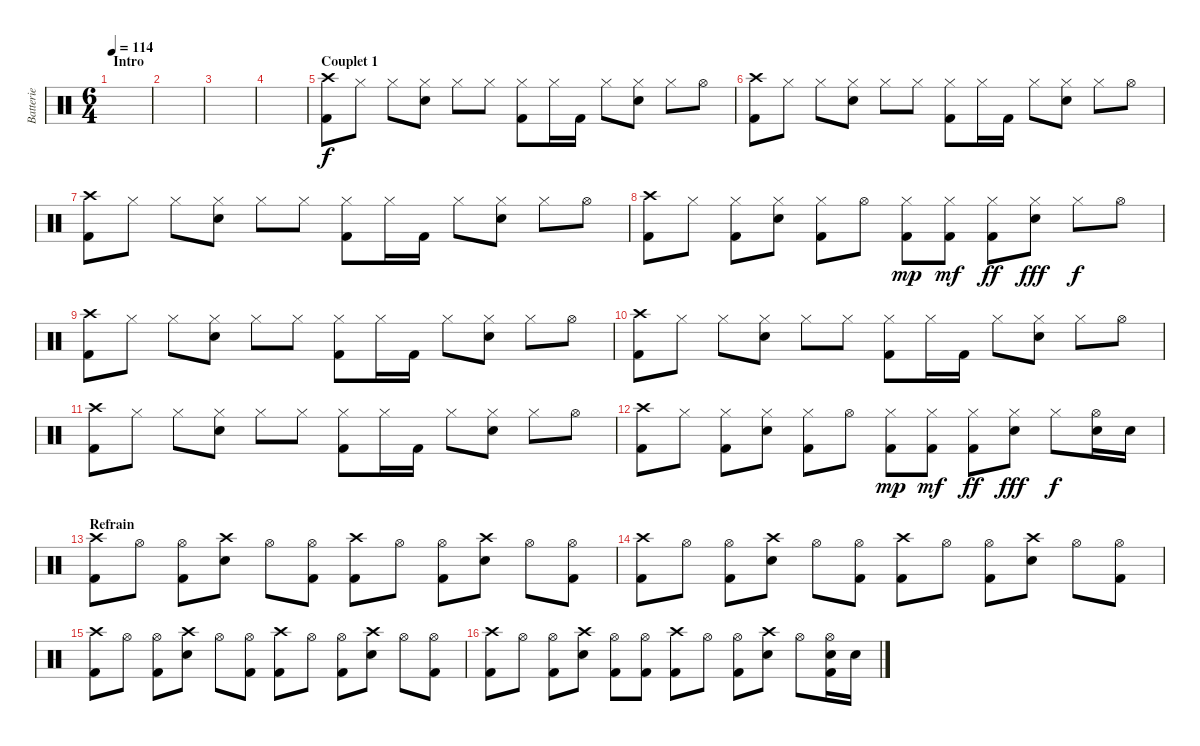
\track ("Batterie" "Batterie") {instrument percussion}
\staff {score}
\articulation defaults
\ts (6 4)
\section ("" "Intro")
\tempo 114
\clef neutral
\ks c
|
|
|
|
\section ("" "Couplet 1")
("Crash high (hit)" "Kick (hit) 2").8 "Hi-Hat (closed)".8 "Hi-Hat (closed)".8 ("Hi-Hat (closed)" "Electric Snare (hit)").8 "Hi-Hat (closed)".8 "Hi-Hat (closed)".8 ("Hi-Hat (closed)" "Kick (hit) 2").8 "Hi-Hat (closed)".16 "Kick (hit) 2".16 "Hi-Hat (closed)".8 ("Hi-Hat (closed)" "Electric Snare (hit)").8 "Hi-Hat (closed)".8 "Hi-Hat (open)".8 |
("Crash high (hit)" "Kick (hit) 2").8 "Hi-Hat (closed)".8 "Hi-Hat (closed)".8 ("Hi-Hat (closed)" "Electric Snare (hit)").8 "Hi-Hat (closed)".8 "Hi-Hat (closed)".8 ("Hi-Hat (closed)" "Kick (hit) 2").8 "Hi-Hat (closed)".16 "Kick (hit) 2".16 "Hi-Hat (closed)".8 ("Hi-Hat (closed)" "Electric Snare (hit)").8 "Hi-Hat (closed)".8 "Hi-Hat (open)".8 |
("Crash high (hit)" "Kick (hit) 2").8 "Hi-Hat (closed)".8 "Hi-Hat (closed)".8 ("Hi-Hat (closed)" "Electric Snare (hit)").8 "Hi-Hat (closed)".8 "Hi-Hat (closed)".8 ("Hi-Hat (closed)" "Kick (hit) 2").8 "Hi-Hat (closed)".16 "Kick (hit) 2".16 "Hi-Hat (closed)".8 ("Hi-Hat (closed)" "Electric Snare (hit)").8 "Hi-Hat (closed)".8 "Hi-Hat (open)".8 |
("Crash high (hit)" "Kick (hit) 2").8 "Hi-Hat (closed)".8 ("Hi-Hat (closed)" "Kick (hit) 2").8 ("Hi-Hat (closed)" "Electric Snare (hit)").8 ("Hi-Hat (closed)" "Kick (hit) 2").8 "Hi-Hat (open)".8 ("Hi-Hat (closed)" "Kick (hit) 2").8{dy mp} ("Hi-Hat (closed)" "Kick (hit) 2").8{dy mf} ("Hi-Hat (closed)" "Kick (hit) 2").8{dy ff} ("Hi-Hat (closed)" "Electric Snare (hit)").8{dy fff} "Hi-Hat (closed)".8{dy f} "Hi-Hat (open)".8 |
("Crash high (hit)" "Kick (hit) 2").8 "Hi-Hat (closed)".8 "Hi-Hat (closed)".8 ("Hi-Hat (closed)" "Electric Snare (hit)").8 "Hi-Hat (closed)".8 "Hi-Hat (closed)".8 ("Hi-Hat (closed)" "Kick (hit) 2").8 "Hi-Hat (closed)".16 "Kick (hit) 2".16 "Hi-Hat (closed)".8 ("Hi-Hat (closed)" "Electric Snare (hit)").8 "Hi-Hat (closed)".8 "Hi-Hat (open)".8 |
("Crash high (hit)" "Kick (hit) 2").8 "Hi-Hat (closed)".8 "Hi-Hat (closed)".8 ("Hi-Hat (closed)" "Electric Snare (hit)").8 "Hi-Hat (closed)".8 "Hi-Hat (closed)".8 ("Hi-Hat (closed)" "Kick (hit) 2").8 "Hi-Hat (closed)".16 "Kick (hit) 2".16 "Hi-Hat (closed)".8 ("Hi-Hat (closed)" "Electric Snare (hit)").8 "Hi-Hat (closed)".8 "Hi-Hat (open)".8 |
("Crash high (hit)" "Kick (hit) 2").8 "Hi-Hat (closed)".8 "Hi-Hat (closed)".8 ("Hi-Hat (closed)" "Electric Snare (hit)").8 "Hi-Hat (closed)".8 "Hi-Hat (closed)".8 ("Hi-Hat (closed)" "Kick (hit) 2").8 "Hi-Hat (closed)".16 "Kick (hit) 2".16 "Hi-Hat (closed)".8 ("Hi-Hat (closed)" "Electric Snare (hit)").8 "Hi-Hat (closed)".8 "Hi-Hat (open)".8 |
("Crash high (hit)" "Kick (hit) 2").8 "Hi-Hat (closed)".8 ("Hi-Hat (closed)" "Kick (hit) 2").8 ("Hi-Hat (closed)" "Electric Snare (hit)").8 ("Hi-Hat (closed)" "Kick (hit) 2").8 "Hi-Hat (open)".8 ("Hi-Hat (closed)" "Kick (hit) 2").8{dy mp} ("Hi-Hat (closed)" "Kick (hit) 2").8{dy mf} ("Hi-Hat (closed)" "Kick (hit) 2").8{dy ff} ("Hi-Hat (closed)" "Electric Snare (hit)").8{dy fff} "Hi-Hat (closed)".8{dy f} ("Hi-Hat (open)" "Electric Snare (hit)").16 "Electric Snare (hit)".16 |
\section ("" "Refrain")
("Crash high (hit)" "Kick (hit) 2").8 "Hi-Hat (open)".8 ("Hi-Hat (open)" "Kick (hit) 2").8 ("Crash high (hit)" "Electric Snare (hit)").8 "Hi-Hat (open)".8 ("Hi-Hat (open)" "Kick (hit) 2").8 ("Crash high (hit)" "Kick (hit) 2").8 "Hi-Hat (open)".8 ("Hi-Hat (open)" "Kick (hit) 2").8 ("Crash high (hit)" "Electric Snare (hit)").8 "Hi-Hat (open)".8 ("Hi-Hat (open)" "Kick (hit) 2").8 |
("Crash high (hit)" "Kick (hit) 2").8 "Hi-Hat (open)".8 ("Hi-Hat (open)" "Kick (hit) 2").8 ("Crash high (hit)" "Electric Snare (hit)").8 "Hi-Hat (open)".8 ("Hi-Hat (open)" "Kick (hit) 2").8 ("Crash high (hit)" "Kick (hit) 2").8 "Hi-Hat (open)".8 ("Hi-Hat (open)" "Kick (hit) 2").8 ("Crash high (hit)" "Electric Snare (hit)").8 "Hi-Hat (open)".8 ("Hi-Hat (open)" "Kick (hit) 2").8 |
("Crash high (hit)" "Kick (hit) 2").8 "Hi-Hat (open)".8 ("Hi-Hat (open)" "Kick (hit) 2").8 ("Crash high (hit)" "Electric Snare (hit)").8 "Hi-Hat (open)".8 ("Hi-Hat (open)" "Kick (hit) 2").8 ("Crash high (hit)" "Kick (hit) 2").8 "Hi-Hat (open)".8 ("Hi-Hat (open)" "Kick (hit) 2").8 ("Crash high (hit)" "Electric Snare (hit)").8 "Hi-Hat (open)".8 ("Hi-Hat (open)" "Kick (hit) 2").8 |
("Crash high (hit)" "Kick (hit) 2").8 "Hi-Hat (open)".8 ("Hi-Hat (open)" "Kick (hit) 2").8 ("Crash high (hit)" "Electric Snare (hit)").8 ("Hi-Hat (open)" "Kick (hit) 2").8 ("Hi-Hat (open)" "Kick (hit) 2").8 ("Crash high (hit)" "Kick (hit) 2").8 "Hi-Hat (open)".8 ("Hi-Hat (open)" "Kick (hit) 2").8 ("Crash high (hit)" "Electric Snare (hit)").8 "Hi-Hat (open)".8 ("Hi-Hat (open)" "Electric Snare (hit)" "Kick (hit) 2").16 "Electric Snare (hit)".16
